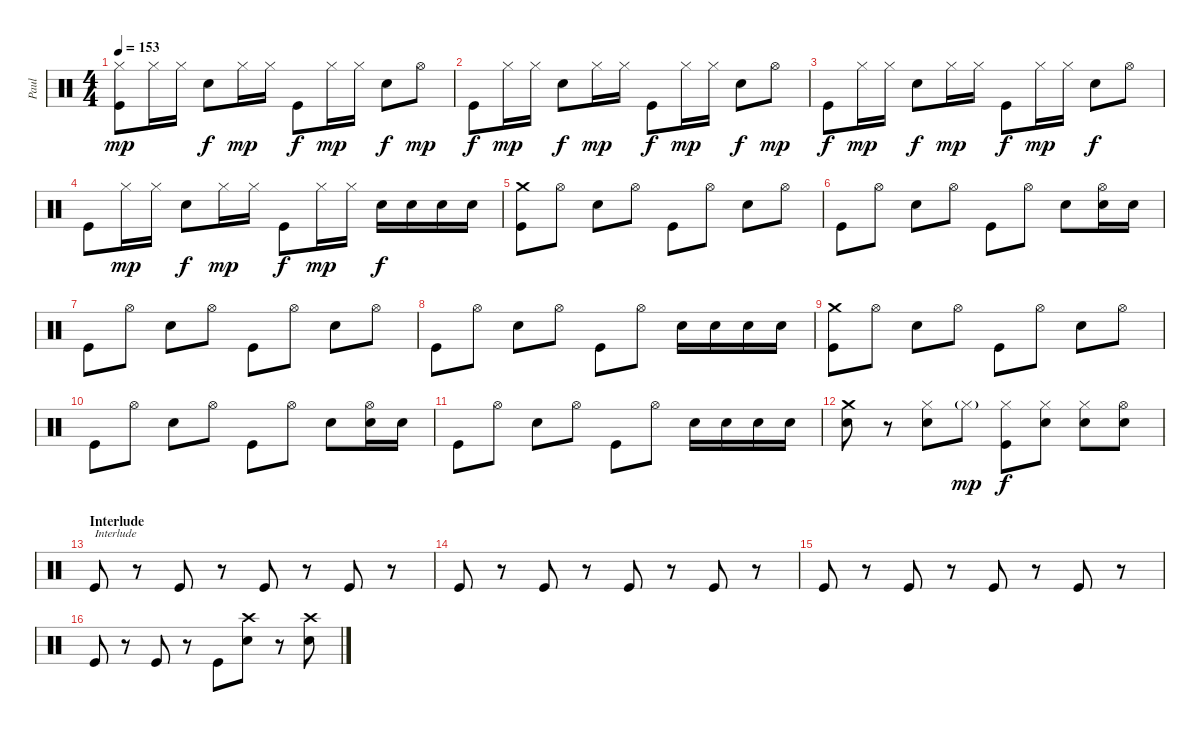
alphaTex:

\track ("Paul" "Paul") {instrument percussion}
\staff {score}
\articulation defaults
\ts (4 4)
\tempo 153
\clef neutral
\ks c
("Kick (hit)" "Hi-Hat (closed)").8{dy mp} "Hi-Hat (closed)".16 "Hi-Hat (closed)".16 "Electric Snare (hit)".8{dy f} "Hi-Hat (closed)".16{dy mp} "Hi-Hat (closed)".16 "Kick (hit)".8{dy f} "Hi-Hat (closed)".16{dy mp} "Hi-Hat (closed)".16 "Electric Snare (hit)".8{dy f} "Hi-Hat (open)".8{dy mp} |
"Kick (hit)".8{dy f} "Hi-Hat (closed)".16{dy mp} "Hi-Hat (closed)".16 "Electric Snare (hit)".8{dy f} "Hi-Hat (closed)".16{dy mp} "Hi-Hat (closed)".16 "Kick (hit)".8{dy f} "Hi-Hat (closed)".16{dy mp} "Hi-Hat (closed)".16 "Electric Snare (hit)".8{dy f} "Hi-Hat (open)".8{dy mp} |
"Kick (hit)".8{dy f} "Hi-Hat (closed)".16{dy mp} "Hi-Hat (closed)".16 "Electric Snare (hit)".8{dy f} "Hi-Hat (closed)".16{dy mp} "Hi-Hat (closed)".16 "Kick (hit)".8{dy f} "Hi-Hat (closed)".16{dy mp} "Hi-Hat (closed)".16 "Electric Snare (hit)".8{dy f} "Hi-Hat (open)".8 |
"Kick (hit)".8 "Hi-Hat (closed)".16{dy mp} "Hi-Hat (closed)".16 "Electric Snare (hit)".8{dy f} "Hi-Hat (closed)".16{dy mp} "Hi-Hat (closed)".16 "Kick (hit)".8{dy f} "Hi-Hat (closed)".16{dy mp} "Hi-Hat (closed)".16 "Electric Snare (hit)".16{dy f} "Electric Snare (hit)".16 "Electric Snare (hit)".16 "Electric Snare (hit)".16 |
("Kick (hit)" "Crash medium (hit)").8 "Hi-Hat (open)".8 "Electric Snare (hit)".8 "Hi-Hat (open)".8 "Kick (hit)".8 "Hi-Hat (open)".8 "Electric Snare (hit)".8 "Hi-Hat (open)".8 |
"Kick (hit)".8 "Hi-Hat (open)".8 "Electric Snare (hit)".8 "Hi-Hat (open)".8 "Kick (hit)".8 "Hi-Hat (open)".8 "Electric Snare (hit)".8 ("Hi-Hat (open)" "Electric Snare (hit)").16 "Electric Snare (hit)".16 |
"Kick (hit)".8 "Hi-Hat (open)".8 "Electric Snare (hit)".8 "Hi-Hat (open)".8 "Kick (hit)".8 "Hi-Hat (open)".8 "Electric Snare (hit)".8 "Hi-Hat (open)".8 |
"Kick (hit)".8 "Hi-Hat (open)".8 "Electric Snare (hit)".8 "Hi-Hat (open)".8 "Kick (hit)".8 "Hi-Hat (open)".8 "Electric Snare (hit)".16 "Electric Snare (hit)".16 "Electric Snare (hit)".16 "Electric Snare (hit)".16 |
("Kick (hit)" "Crash medium (hit)").8 "Hi-Hat (open)".8 "Electric Snare (hit)".8 "Hi-Hat (open)".8 "Kick (hit)".8 "Hi-Hat (open)".8 "Electric Snare (hit)".8 "Hi-Hat (open)".8 |
"Kick (hit)".8 "Hi-Hat (open)".8 "Electric Snare (hit)".8 "Hi-Hat (open)".8 "Kick (hit)".8 "Hi-Hat (open)".8 "Electric Snare (hit)".8 ("Hi-Hat (open)" "Electric Snare (hit)").16 "Electric Snare (hit)".16 |
"Kick (hit)".8 "Hi-Hat (open)".8 "Electric Snare (hit)".8 "Hi-Hat (open)".8 "Kick (hit)".8 "Hi-Hat (open)".8 "Electric Snare (hit)".16 "Electric Snare (hit)".16 "Electric Snare (hit)".16 "Electric Snare (hit)".16 |
("Crash medium (hit)" "Electric Snare (hit)").8 r.8 ("Hi-Hat (closed)" "Electric Snare (hit)").8 "Hi-Hat (closed)"{g}.8{dy mp} ("Hi-Hat (closed)" "Kick (hit)").8{dy f} ("Hi-Hat (closed)" "Electric Snare (hit)").8 ("Hi-Hat (closed)" "Electric Snare (hit)").8 ("Hi-Hat (open)" "Electric Snare (hit)").8 |
\section ("" "Interlude")
"Kick (hit)".8{txt "Interlude"} r.8 "Kick (hit)".8 r.8 "Kick (hit)".8 r.8 "Kick (hit)".8 r.8 |
"Kick (hit)".8 r.8 "Kick (hit)".8 r.8 "Kick (hit)".8 r.8 "Kick (hit)".8 r.8 |
"Kick (hit)".8 r.8 "Kick (hit)".8 r.8 "Kick (hit)".8 r.8 "Kick (hit)".8 r.8 |
"Kick (hit)".8 r.8 "Kick (hit)".8 r.8 "Kick (hit)".8 ("Electric Snare (hit)" "Crash high (hit)").8 r.8 ("Electric Snare (hit)" "Crash high (hit)").8
